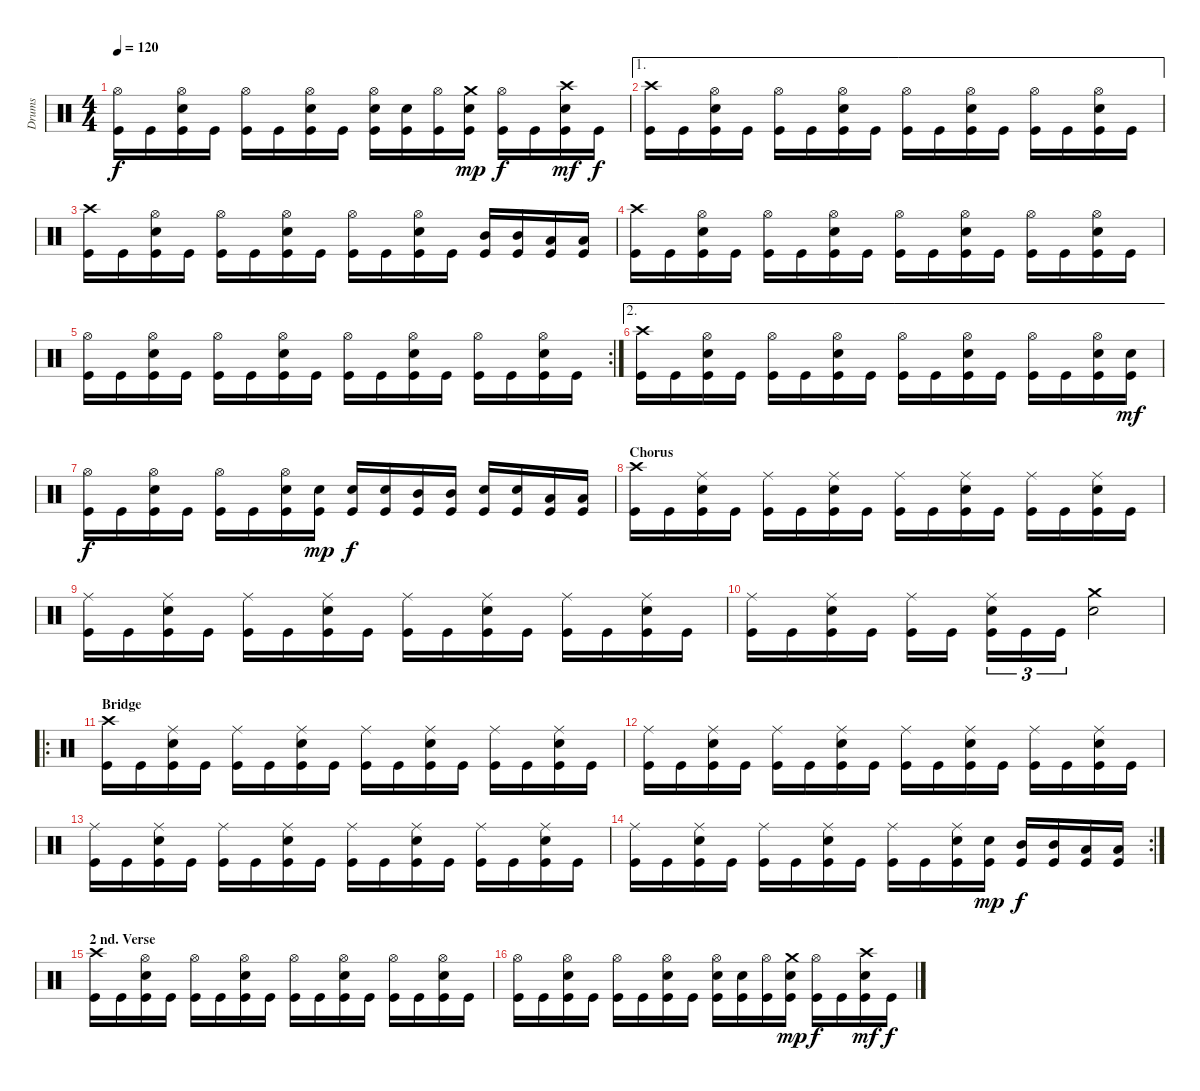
\track ("Drums" "Drums") {instrument percussion}
\staff {score}
\articulation defaults
\ts (4 4)
\tempo 120
\clef neutral
\ks c
("Hi-Hat (open)" "Kick (hit)").16{dy f} "Kick (hit)".16 ("Hi-Hat (open)" "Electric Snare (hit)" "Kick (hit)").16 "Kick (hit)".16 ("Hi-Hat (open)" "Kick (hit)").16 "Kick (hit)".16 ("Hi-Hat (open)" "Electric Snare (hit)" "Kick (hit)").16 "Kick (hit)".16 ("Hi-Hat (open)" "Electric Snare (hit)" "Kick (hit)").16 ("Electric Snare (hit)" "Kick (hit)").16 ("Hi-Hat (open)" "Kick (hit)").16 ("Crash medium (hit)" "Electric Snare (hit)" "Kick (hit)").16{dy mp} ("Hi-Hat (open)" "Kick (hit)").16{dy f} "Kick (hit)".16 ("Crash high (hit)" "Electric Snare (hit)" "Kick (hit)").16{dy mf} "Kick (hit)".16{dy f} |
\ae 1
("Crash high (hit)" "Kick (hit)").16 "Kick (hit)".16 ("Hi-Hat (open)" "Electric Snare (hit)" "Kick (hit)").16 "Kick (hit)".16 ("Hi-Hat (open)" "Kick (hit)").16 "Kick (hit)".16 ("Hi-Hat (open)" "Electric Snare (hit)" "Kick (hit)").16 "Kick (hit)".16 ("Hi-Hat (open)" "Kick (hit)").16 "Kick (hit)".16 ("Hi-Hat (open)" "Electric Snare (hit)" "Kick (hit)").16 "Kick (hit)".16 ("Hi-Hat (open)" "Kick (hit)").16 "Kick (hit)".16 ("Hi-Hat (open)" "Electric Snare (hit)" "Kick (hit)").16 "Kick (hit)".16 |
("Crash high (hit)" "Kick (hit)").16 "Kick (hit)".16 ("Hi-Hat (open)" "Electric Snare (hit)" "Kick (hit)").16 "Kick (hit)".16 ("Hi-Hat (open)" "Kick (hit)").16 "Kick (hit)".16 ("Hi-Hat (open)" "Electric Snare (hit)" "Kick (hit)").16 "Kick (hit)".16 ("Hi-Hat (open)" "Kick (hit)").16 "Kick (hit)".16 ("Hi-Hat (open)" "Electric Snare (hit)" "Kick (hit)").16 "Kick (hit)".16 ("Mid Tom (hit)" "Kick (hit)").16 ("Mid Tom (hit)" "Kick (hit)").16 ("Low Tom (hit)" "Kick (hit)").16 ("Low Tom (hit)" "Kick (hit)").16 |
("Crash high (hit)" "Kick (hit)").16 "Kick (hit)".16 ("Hi-Hat (open)" "Electric Snare (hit)" "Kick (hit)").16 "Kick (hit)".16 ("Hi-Hat (open)" "Kick (hit)").16 "Kick (hit)".16 ("Hi-Hat (open)" "Electric Snare (hit)" "Kick (hit)").16 "Kick (hit)".16 ("Hi-Hat (open)" "Kick (hit)").16 "Kick (hit)".16 ("Hi-Hat (open)" "Electric Snare (hit)" "Kick (hit)").16 "Kick (hit)".16 ("Hi-Hat (open)" "Kick (hit)").16 "Kick (hit)".16 ("Hi-Hat (open)" "Electric Snare (hit)" "Kick (hit)").16 "Kick (hit)".16 |
\rc 2
("Hi-Hat (open)" "Kick (hit)").16 "Kick (hit)".16 ("Hi-Hat (open)" "Electric Snare (hit)" "Kick (hit)").16 "Kick (hit)".16 ("Hi-Hat (open)" "Kick (hit)").16 "Kick (hit)".16 ("Hi-Hat (open)" "Electric Snare (hit)" "Kick (hit)").16 "Kick (hit)".16 ("Hi-Hat (open)" "Kick (hit)").16 "Kick (hit)".16 ("Hi-Hat (open)" "Electric Snare (hit)" "Kick (hit)").16 "Kick (hit)".16 ("Hi-Hat (open)" "Kick (hit)").16 "Kick (hit)".16 ("Hi-Hat (open)" "Electric Snare (hit)" "Kick (hit)").16 "Kick (hit)".16 |
\ae 2
("Crash high (hit)" "Kick (hit)").16 "Kick (hit)".16 ("Hi-Hat (open)" "Electric Snare (hit)" "Kick (hit)").16 "Kick (hit)".16 ("Hi-Hat (open)" "Kick (hit)").16 "Kick (hit)".16 ("Hi-Hat (open)" "Electric Snare (hit)" "Kick (hit)").16 "Kick (hit)".16 ("Hi-Hat (open)" "Kick (hit)").16 "Kick (hit)".16 ("Hi-Hat (open)" "Electric Snare (hit)" "Kick (hit)").16 "Kick (hit)".16 ("Hi-Hat (open)" "Kick (hit)").16 "Kick (hit)".16 ("Hi-Hat (open)" "Electric Snare (hit)" "Kick (hit)").16 ("Electric Snare (hit)" "Kick (hit)").16{dy mf} |
("Hi-Hat (open)" "Kick (hit)").16{dy f} "Kick (hit)".16 ("Hi-Hat (open)" "Electric Snare (hit)" "Kick (hit)").16 "Kick (hit)".16 ("Hi-Hat (open)" "Kick (hit)").16 "Kick (hit)".16 ("Hi-Hat (open)" "Electric Snare (hit)" "Kick (hit)").16 ("Electric Snare (hit)" "Kick (hit)").16{dy mp} ("Electric Snare (hit)" "Kick (hit)").16{dy f} ("Electric Snare (hit)" "Kick (hit)").16 ("Mid Tom (hit)" "Kick (hit)").16 ("Mid Tom (hit)" "Kick (hit)").16 ("Electric Snare (hit)" "Kick (hit)").16 ("Electric Snare (hit)" "Kick (hit)").16 ("Low Tom (hit)" "Kick (hit)").16 ("Low Tom (hit)" "Kick (hit)").16 |
\section ("" "Chorus")
("Crash high (hit)" "Kick (hit)").16 "Kick (hit)".16 ("Ride (middle)" "Electric Snare (hit)" "Kick (hit)").16 "Kick (hit)".16 ("Ride (middle)" "Kick (hit)").16 "Kick (hit)".16 ("Ride (middle)" "Electric Snare (hit)" "Kick (hit)").16 "Kick (hit)".16 ("Ride (middle)" "Kick (hit)").16 "Kick (hit)".16 ("Ride (middle)" "Electric Snare (hit)" "Kick (hit)").16 "Kick (hit)".16 ("Ride (middle)" "Kick (hit)").16 "Kick (hit)".16 ("Ride (middle)" "Electric Snare (hit)" "Kick (hit)").16 "Kick (hit)".16 |
("Ride (middle)" "Kick (hit)").16 "Kick (hit)".16 ("Ride (middle)" "Electric Snare (hit)" "Kick (hit)").16 "Kick (hit)".16 ("Ride (middle)" "Kick (hit)").16 "Kick (hit)".16 ("Ride (middle)" "Electric Snare (hit)" "Kick (hit)").16 "Kick (hit)".16 ("Ride (middle)" "Kick (hit)").16 "Kick (hit)".16 ("Ride (middle)" "Electric Snare (hit)" "Kick (hit)").16 "Kick (hit)".16 ("Ride (middle)" "Kick (hit)").16 "Kick (hit)".16 ("Ride (middle)" "Electric Snare (hit)" "Kick (hit)").16 "Kick (hit)".16 |
("Ride (middle)" "Kick (hit)").16 "Kick (hit)".16 ("Ride (middle)" "Electric Snare (hit)" "Kick (hit)").16 "Kick (hit)".16 ("Ride (middle)" "Kick (hit)").16 "Kick (hit)".16 ("Ride (middle)" "Electric Snare (hit)" "Kick (hit)").16{tu (3 2)} "Kick (hit)".16{tu (3 2)} "Kick (hit)".16{tu (3 2)} ("Crash medium (hit)" "Electric Snare (hit)").2 |
\ro
\section ("" "Bridge")
("Crash high (hit)" "Kick (hit)").16 "Kick (hit)".16 ("Ride (middle)" "Electric Snare (hit)" "Kick (hit)").16 "Kick (hit)".16 ("Ride (middle)" "Kick (hit)").16 "Kick (hit)".16 ("Ride (middle)" "Electric Snare (hit)" "Kick (hit)").16 "Kick (hit)".16 ("Ride (middle)" "Kick (hit)").16 "Kick (hit)".16 ("Ride (middle)" "Electric Snare (hit)" "Kick (hit)").16 "Kick (hit)".16 ("Ride (middle)" "Kick (hit)").16 "Kick (hit)".16 ("Ride (middle)" "Electric Snare (hit)" "Kick (hit)").16 "Kick (hit)".16 |
("Ride (middle)" "Kick (hit)").16 "Kick (hit)".16 ("Ride (middle)" "Electric Snare (hit)" "Kick (hit)").16 "Kick (hit)".16 ("Ride (middle)" "Kick (hit)").16 "Kick (hit)".16 ("Ride (middle)" "Electric Snare (hit)" "Kick (hit)").16 "Kick (hit)".16 ("Ride (middle)" "Kick (hit)").16 "Kick (hit)".16 ("Ride (middle)" "Electric Snare (hit)" "Kick (hit)").16 "Kick (hit)".16 ("Ride (middle)" "Kick (hit)").16 "Kick (hit)".16 ("Ride (middle)" "Electric Snare (hit)" "Kick (hit)").16 "Kick (hit)".16 |
("Ride (middle)" "Kick (hit)").16 "Kick (hit)".16 ("Ride (middle)" "Electric Snare (hit)" "Kick (hit)").16 "Kick (hit)".16 ("Ride (middle)" "Kick (hit)").16 "Kick (hit)".16 ("Ride (middle)" "Electric Snare (hit)" "Kick (hit)").16 "Kick (hit)".16 ("Ride (middle)" "Kick (hit)").16 "Kick (hit)".16 ("Ride (middle)" "Electric Snare (hit)" "Kick (hit)").16 "Kick (hit)".16 ("Ride (middle)" "Kick (hit)").16 "Kick (hit)".16 ("Ride (middle)" "Electric Snare (hit)" "Kick (hit)").16 "Kick (hit)".16 |
\rc 2
("Ride (middle)" "Kick (hit)").16 "Kick (hit)".16 ("Ride (middle)" "Electric Snare (hit)" "Kick (hit)").16 "Kick (hit)".16 ("Ride (middle)" "Kick (hit)").16 "Kick (hit)".16 ("Ride (middle)" "Electric Snare (hit)" "Kick (hit)").16 "Kick (hit)".16 ("Ride (middle)" "Kick (hit)").16 "Kick (hit)".16 ("Ride (middle)" "Electric Snare (hit)" "Kick (hit)").16 ("Electric Snare (hit)" "Kick (hit)").16{dy mp} ("Mid Tom (hit)" "Kick (hit)").16{dy f} ("Mid Tom (hit)" "Kick (hit)").16 ("Low Tom (hit)" "Kick (hit)").16 ("Low Tom (hit)" "Kick (hit)").16 |
\section ("" "2 nd. Verse")
("Crash high (hit)" "Kick (hit)").16 "Kick (hit)".16 ("Hi-Hat (open)" "Electric Snare (hit)" "Kick (hit)").16 "Kick (hit)".16 ("Hi-Hat (open)" "Kick (hit)").16 "Kick (hit)".16 ("Hi-Hat (open)" "Electric Snare (hit)" "Kick (hit)").16 "Kick (hit)".16 ("Hi-Hat (open)" "Kick (hit)").16 "Kick (hit)".16 ("Hi-Hat (open)" "Electric Snare (hit)" "Kick (hit)").16 "Kick (hit)".16 ("Hi-Hat (open)" "Kick (hit)").16 "Kick (hit)".16 ("Hi-Hat (open)" "Electric Snare (hit)" "Kick (hit)").16 "Kick (hit)".16 |
("Hi-Hat (open)" "Kick (hit)").16 "Kick (hit)".16 ("Hi-Hat (open)" "Electric Snare (hit)" "Kick (hit)").16 "Kick (hit)".16 ("Hi-Hat (open)" "Kick (hit)").16 "Kick (hit)".16 ("Hi-Hat (open)" "Electric Snare (hit)" "Kick (hit)").16 "Kick (hit)".16 ("Hi-Hat (open)" "Electric Snare (hit)" "Kick (hit)").16 ("Electric Snare (hit)" "Kick (hit)").16 ("Hi-Hat (open)" "Kick (hit)").16 ("Crash medium (hit)" "Electric Snare (hit)" "Kick (hit)").16{dy mp} ("Hi-Hat (open)" "Kick (hit)").16{dy f} "Kick (hit)".16 ("Crash high (hit)" "Electric Snare (hit)" "Kick (hit)").16{dy mf} "Kick (hit)".16{dy f}
